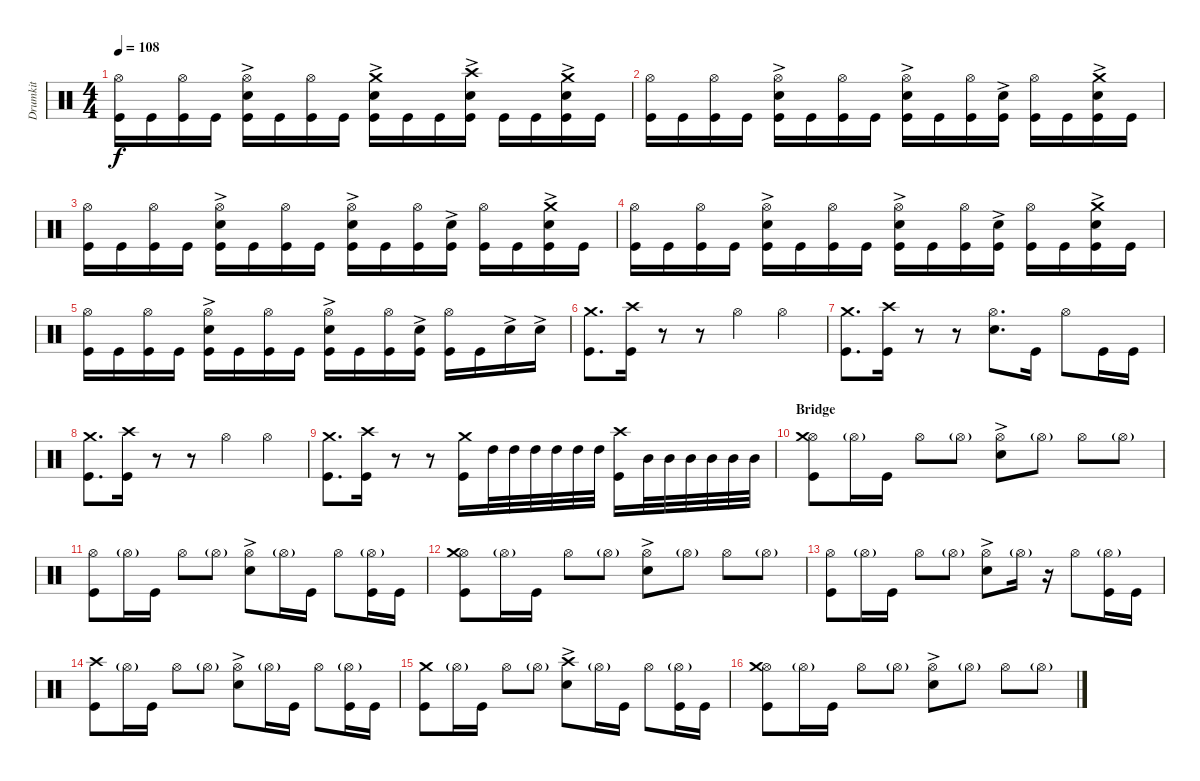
\track ("Drumkit" "Drumkit") {instrument percussion}
\staff {score}
\articulation defaults
\ts (4 4)
\tempo 108
\clef neutral
\ks c
("Kick (hit)" "Hi-Hat (open)").16{dy f} "Kick (hit)".16 ("Kick (hit)" "Hi-Hat (open)").16 "Kick (hit)".16 ("Kick (hit)" "Snare (hit) 2"{ac} "Hi-Hat (open)").16 "Kick (hit)".16 ("Kick (hit)" "Hi-Hat (open)").16 "Kick (hit)".16 ("Kick (hit)" "Snare (hit) 2"{ac} "Crash medium (hit)").16 "Kick (hit)".16 "Kick (hit)".16 ("Kick (hit)" "Snare (hit) 2"{ac} "Crash high (hit)").16 "Kick (hit)".16 "Kick (hit)".16 ("Kick (hit)" "Crash medium (hit)" "Snare (hit) 2"{ac}).16 "Kick (hit)".16 |
("Kick (hit)" "Hi-Hat (open)").16 "Kick (hit)".16 ("Kick (hit)" "Hi-Hat (open)").16 "Kick (hit)".16 ("Kick (hit)" "Snare (hit) 2"{ac} "Hi-Hat (open)").16 "Kick (hit)".16 ("Kick (hit)" "Hi-Hat (open)").16 "Kick (hit)".16 ("Kick (hit)" "Snare (hit) 2"{ac} "Hi-Hat (open)").16 "Kick (hit)".16 ("Kick (hit)" "Hi-Hat (open)").16 ("Kick (hit)" "Snare (hit) 2"{ac}).16 ("Kick (hit)" "Hi-Hat (open)").16 "Kick (hit)".16 ("Kick (hit)" "Crash medium (hit)" "Snare (hit) 2"{ac}).16 "Kick (hit)".16 |
("Kick (hit)" "Hi-Hat (open)").16 "Kick (hit)".16 ("Kick (hit)" "Hi-Hat (open)").16 "Kick (hit)".16 ("Kick (hit)" "Snare (hit) 2"{ac} "Hi-Hat (open)").16 "Kick (hit)".16 ("Kick (hit)" "Hi-Hat (open)").16 "Kick (hit)".16 ("Kick (hit)" "Snare (hit) 2"{ac} "Hi-Hat (open)").16 "Kick (hit)".16 ("Kick (hit)" "Hi-Hat (open)").16 ("Kick (hit)" "Snare (hit) 2"{ac}).16 ("Kick (hit)" "Hi-Hat (open)").16 "Kick (hit)".16 ("Kick (hit)" "Crash medium (hit)" "Snare (hit) 2"{ac}).16 "Kick (hit)".16 |
("Kick (hit)" "Hi-Hat (open)").16 "Kick (hit)".16 ("Kick (hit)" "Hi-Hat (open)").16 "Kick (hit)".16 ("Kick (hit)" "Snare (hit) 2"{ac} "Hi-Hat (open)").16 "Kick (hit)".16 ("Kick (hit)" "Hi-Hat (open)").16 "Kick (hit)".16 ("Kick (hit)" "Snare (hit) 2"{ac} "Hi-Hat (open)").16 "Kick (hit)".16 ("Kick (hit)" "Hi-Hat (open)").16 ("Kick (hit)" "Snare (hit) 2"{ac}).16 ("Kick (hit)" "Hi-Hat (open)").16 "Kick (hit)".16 ("Kick (hit)" "Crash medium (hit)" "Snare (hit) 2"{ac}).16 "Kick (hit)".16 |
("Kick (hit)" "Hi-Hat (open)").16 "Kick (hit)".16 ("Kick (hit)" "Hi-Hat (open)").16 "Kick (hit)".16 ("Kick (hit)" "Snare (hit) 2"{ac} "Hi-Hat (open)").16 "Kick (hit)".16 ("Kick (hit)" "Hi-Hat (open)").16 "Kick (hit)".16 ("Kick (hit)" "Snare (hit) 2"{ac} "Hi-Hat (open)").16 "Kick (hit)".16 ("Kick (hit)" "Hi-Hat (open)").16 ("Kick (hit)" "Snare (hit) 2"{ac}).16 ("Kick (hit)" "Hi-Hat (open)").16 "Kick (hit)".16 "Snare (hit) 2"{ac}.16 "Snare (hit) 2"{ac}.16 |
("Kick (hit)" "Crash medium (hit)").8{d} ("Kick (hit)" "Crash high (hit)").16 r.8 r.8 "Hi-Hat (open)".4 "Hi-Hat (open)".4 |
("Kick (hit)" "Crash medium (hit)").8{d} ("Kick (hit)" "Crash high (hit)").16 r.8 r.8 ("Snare (hit) 2" "Hi-Hat (open)").8{d} "Kick (hit)".16 "Hi-Hat (open)".8 "Kick (hit)".16 "Kick (hit)".16 |
("Kick (hit)" "Crash medium (hit)").8{d} ("Kick (hit)" "Crash high (hit)").16 r.8 r.8 "Hi-Hat (open)".4 "Hi-Hat (open)".4 |
("Kick (hit)" "Crash medium (hit)").8{d} ("Kick (hit)" "Crash high (hit)").16 r.8 r.8 ("Kick (hit)" "Crash medium (hit)").16 "High Tom (hit)".32 "High Tom (hit)".32 "High Tom (hit)".32 "High Tom (hit)".32 "High Tom (hit)".32 "High Tom (hit)".32 ("Kick (hit)" "Crash high (hit)").16 "Mid Tom (hit)".32 "Mid Tom (hit)".32 "Mid Tom (hit)".32 "Mid Tom (hit)".32 "Mid Tom (hit)".32 "Mid Tom (hit)".32 |
\section ("" "Bridge")
("Kick (hit)" "Hi-Hat (open)" "Crash medium (hit)").8 "Hi-Hat (open)"{g}.16 "Kick (hit)".16 "Hi-Hat (open)".8 "Hi-Hat (open)"{g}.8 ("Hi-Hat (open)" "Snare (hit) 2"{ac}).8 "Hi-Hat (open)"{g}.8 "Hi-Hat (open)".8 "Hi-Hat (open)"{g}.8 |
("Kick (hit)" "Hi-Hat (open)").8 "Hi-Hat (open)"{g}.16 "Kick (hit)".16 "Hi-Hat (open)".8 "Hi-Hat (open)"{g}.8 ("Hi-Hat (open)" "Snare (hit) 2"{ac}).8 "Hi-Hat (open)"{g}.16 "Kick (hit)".16 "Hi-Hat (open)".8 ("Hi-Hat (open)"{g} "Kick (hit)").16 "Kick (hit)".16 |
("Kick (hit)" "Hi-Hat (open)" "Crash medium (hit)").8 "Hi-Hat (open)"{g}.16 "Kick (hit)".16 "Hi-Hat (open)".8 "Hi-Hat (open)"{g}.8 ("Hi-Hat (open)" "Snare (hit) 2"{ac}).8 "Hi-Hat (open)"{g}.8 "Hi-Hat (open)".8 "Hi-Hat (open)"{g}.8 |
("Kick (hit)" "Hi-Hat (open)").8 "Hi-Hat (open)"{g}.16 "Kick (hit)".16 "Hi-Hat (open)".8 "Hi-Hat (open)"{g}.8 ("Hi-Hat (open)" "Snare (hit) 2"{ac}).8 "Hi-Hat (open)"{g}.16 r.16 "Hi-Hat (open)".8 ("Hi-Hat (open)"{g} "Kick (hit)").16 "Kick (hit)".16 |
("Kick (hit)" "Crash high (hit)").8 "Hi-Hat (open)"{g}.16 "Kick (hit)".16 "Hi-Hat (open)".8 "Hi-Hat (open)"{g}.8 ("Hi-Hat (open)" "Snare (hit) 2"{ac}).8 "Hi-Hat (open)"{g}.16 "Kick (hit)".16 "Hi-Hat (open)".8 ("Hi-Hat (open)"{g} "Kick (hit)").16 "Kick (hit)".16 |
("Kick (hit)" "Crash medium (hit)").8 "Hi-Hat (open)"{g}.16 "Kick (hit)".16 "Hi-Hat (open)".8 "Hi-Hat (open)"{g}.8 ("Snare (hit) 2"{ac} "Crash high (hit)").8 "Hi-Hat (open)"{g}.16 "Kick (hit)".16 "Hi-Hat (open)".8 ("Hi-Hat (open)"{g} "Kick (hit)").16 "Kick (hit)".16 |
("Kick (hit)" "Hi-Hat (open)" "Crash medium (hit)").8 "Hi-Hat (open)"{g}.16 "Kick (hit)".16 "Hi-Hat (open)".8 "Hi-Hat (open)"{g}.8 ("Hi-Hat (open)" "Snare (hit) 2"{ac}).8 "Hi-Hat (open)"{g}.8 "Hi-Hat (open)".8 "Hi-Hat (open)"{g}.8
